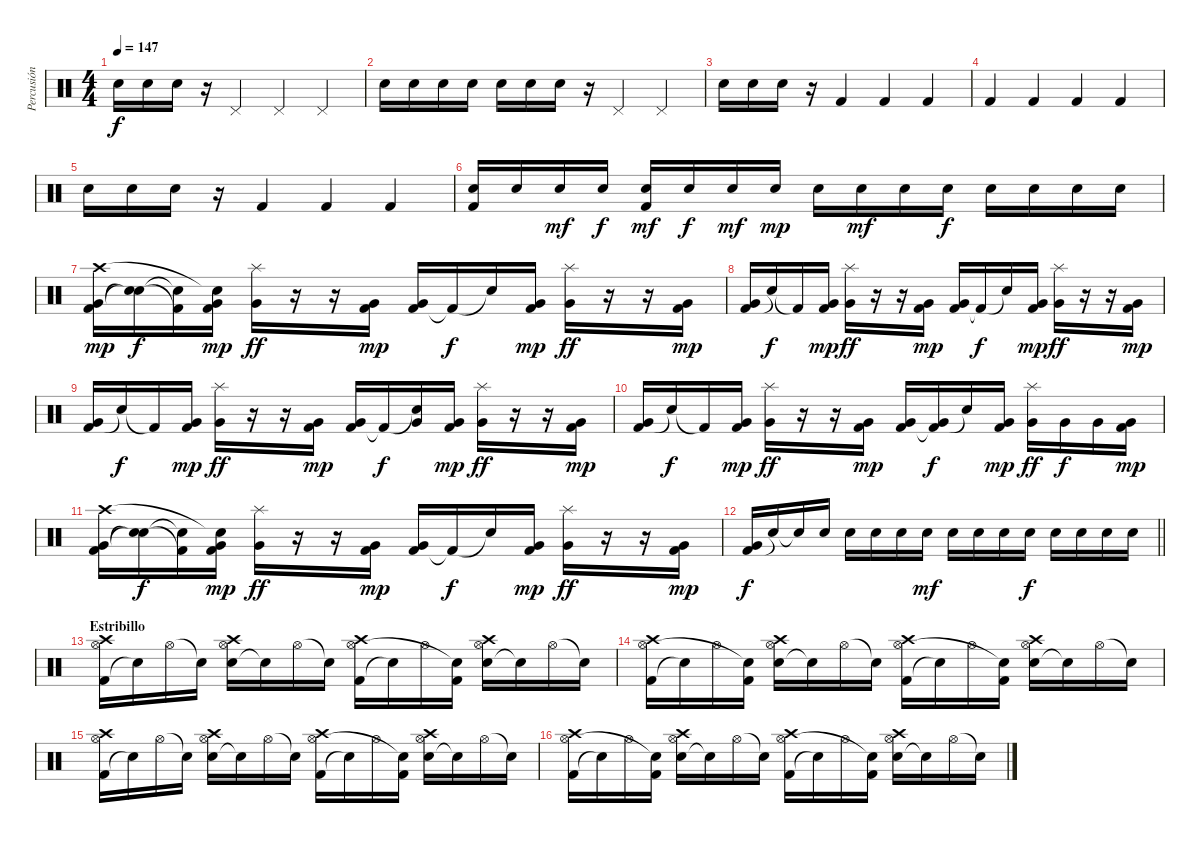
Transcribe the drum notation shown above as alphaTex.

\track ("Percusión" "Percusión") {instrument percussion}
\staff {score}
\articulation defaults
\ts (4 4)
\tempo 147
\clef neutral
\ks c "Electric Snare (hit)".16{dy f} "Electric Snare (hit)".16 "Electric Snare (hit)".16
r.16 "Pedal Hi-Hat (hit)".4 "Pedal Hi-Hat (hit)".4 "Pedal Hi-Hat (hit)".4 |
"Electric Snare (hit)".16 "Electric Snare (hit)".16 "Electric Snare (hit)".16 "Electric Snare (hit)".16 "Electric Snare (hit)".16 "Electric Snare (hit)".16 "Electric Snare (hit)".16 r.16 "Pedal Hi-Hat (hit)".4 "Pedal Hi-Hat (hit)".4 |
"Electric Snare (hit)".16 "Electric Snare (hit)".16 "Electric Snare (hit)".16 r.16 "Kick (hit) 2".4 "Kick (hit) 2".4 "Kick (hit) 2".4 |
"Kick (hit) 2".4 "Kick (hit) 2".4 "Kick (hit) 2".4 "Kick (hit) 2".4 |
"Electric Snare (hit)".16 "Electric Snare (hit)".16 "Electric Snare (hit)".16 r.16 "Kick (hit) 2".4 "Kick (hit) 2".4 "Kick (hit) 2".4 |
("Electric Snare (hit)" "Kick (hit) 2").16 "Electric Snare (hit)".16 "Electric Snare (hit)".16{dy mf} "Electric Snare (hit)".16{dy f} ("Electric Snare (hit)" "Kick (hit) 2").16{dy mf} "Electric Snare (hit)".16{dy f} "Electric Snare (hit)".16{dy mf} "Electric Snare (hit)".16{dy mp} "Electric Snare (hit)".16 "Electric Snare (hit)".16{dy mf} "Electric Snare (hit)".16 "Electric Snare (hit)".16{dy f} "Electric Snare (hit)".16 "Electric Snare (hit)".16 "Electric Snare (hit)".16 "Electric Snare (hit)".16 |
("Kick (hit) 2" "Very Low Tom (hit)" "Crash high (hit)").16{dy mp} ("Snare (hit)"{t} "Snare (hit)"{t}).16{dy f} ("Kick (hit) 2"{t} "Snare (hit)"{t}).16 ("Kick (hit) 2" "Very Low Tom (hit)" "Snare (hit)"{t}).16{dy mp} ("Very Low Tom (hit)" "Splash (hit)").16{dy ff} r.16 r.16 ("Kick (hit) 2" "Very Low Tom (hit)").16{dy mp} ("Kick (hit) 2" "Very Low Tom (hit)").16 "Kick (hit) 2"{t}.16{dy f} "Snare (hit)"{t}.16 ("Kick (hit) 2" "Very Low Tom (hit)").16{dy mp} ("Very Low Tom (hit)" "Splash (hit)").16{dy ff} r.16 r.16 ("Kick (hit) 2" "Very Low Tom (hit)").16{dy mp} |
("Kick (hit) 2" "Very Low Tom (hit)").16 "Snare (hit)"{t}.16{dy f} "Kick (hit) 2"{t}.16 ("Kick (hit) 2" "Very Low Tom (hit)").16{dy mp} ("Very Low Tom (hit)" "Splash (hit)").16{dy ff} r.16 r.16 ("Kick (hit) 2" "Very Low Tom (hit)").16{dy mp} ("Kick (hit) 2" "Very Low Tom (hit)").16 "Kick (hit) 2"{t}.16{dy f} "Snare (hit)"{t}.16 ("Kick (hit) 2" "Very Low Tom (hit)").16{dy mp} ("Very Low Tom (hit)" "Splash (hit)").16{dy ff} r.16 r.16 ("Kick (hit) 2" "Very Low Tom (hit)").16{dy mp} |
("Kick (hit) 2" "Very Low Tom (hit)").16 "Snare (hit)"{t}.16{dy f} "Kick (hit) 2"{t}.16 ("Kick (hit) 2" "Very Low Tom (hit)").16{dy mp} ("Very Low Tom (hit)" "Splash (hit)").16{dy ff} r.16 r.16 ("Kick (hit) 2" "Very Low Tom (hit)").16{dy mp} ("Kick (hit) 2" "Very Low Tom (hit)").16 "Kick (hit) 2"{t}.16{dy f} ("Snare (hit)"{t} "Very Low Tom (hit)").16 ("Kick (hit) 2" "Very Low Tom (hit)").16{dy mp} ("Very Low Tom (hit)" "Splash (hit)").16{dy ff} r.16 r.16 ("Kick (hit) 2" "Very Low Tom (hit)").16{dy mp} |
("Kick (hit) 2" "Very Low Tom (hit)").16 "Snare (hit)"{t}.16{dy f} "Kick (hit) 2"{t}.16 ("Kick (hit) 2" "Very Low Tom (hit)").16{dy mp} ("Very Low Tom (hit)" "Splash (hit)").16{dy ff} r.16 r.16 ("Kick (hit) 2" "Very Low Tom (hit)").16{dy mp} ("Kick (hit) 2" "Very Low Tom (hit)").16 ("Kick (hit) 2"{t} "Very Low Tom (hit)").16{dy f} "Snare (hit)"{t}.16 ("Kick (hit) 2" "Very Low Tom (hit)").16{dy mp} ("Very Low Tom (hit)" "Splash (hit)").16{dy ff} "Very Low Tom (hit)".16{dy f} "Very Low Tom (hit)".16 ("Kick (hit) 2" "Very Low Tom (hit)").16{dy mp} |
("Kick (hit) 2" "Very Low Tom (hit)" "Crash high (hit)").16 ("Snare (hit)"{t} "Snare (hit)"{t}).16{dy f} ("Kick (hit) 2"{t} "Snare (hit)"{t}).16 ("Kick (hit) 2" "Very Low Tom (hit)" "Snare (hit)"{t}).16{dy mp} ("Very Low Tom (hit)" "Splash (hit)").16{dy ff} r.16 r.16 ("Kick (hit) 2" "Very Low Tom (hit)").16{dy mp} ("Kick (hit) 2" "Very Low Tom (hit)").16 "Kick (hit) 2"{t}.16{dy f} "Snare (hit)"{t}.16 ("Kick (hit) 2" "Very Low Tom (hit)").16{dy mp} ("Very Low Tom (hit)" "Splash (hit)").16{dy ff} r.16 r.16 ("Kick (hit) 2" "Very Low Tom (hit)").16{dy mp} |
\barLineRight lightlight
("Kick (hit) 2" "Very Low Tom (hit)").16{dy f} "Electric Snare (hit)"{t}.16 "Electric Snare (hit)"{t}.16 "Electric Snare (hit)".16 "Electric Snare (hit)".16 "Electric Snare (hit)".16 "Electric Snare (hit)".16 "Electric Snare (hit)".16{dy mf} "Electric Snare (hit)".16 "Electric Snare (hit)".16 "Electric Snare (hit)".16 "Electric Snare (hit)".16{dy f} "Electric Snare (hit)".16 "Electric Snare (hit)".16 "Electric Snare (hit)".16 "Electric Snare (hit)".16 |
\section ("" "Estribillo")
("Kick (hit) 2" "Hi-Hat (open)" "Crash high (hit)").16 "Snare (hit)"{t}.16 "Hi-Hat (open)".16 "Snare (hit)"{t}.16 ("Electric Snare (hit)" "Hi-Hat (open)" "Crash high (hit)").16 "Snare (hit)"{t}.16 "Hi-Hat (open)".16 "Snare (hit)"{t}.16 ("Kick (hit) 2" "Hi-Hat (open)" "Crash high (hit)").16 "Snare (hit)"{t}.16 "Hi-Hat (open)".16 ("Kick (hit) 2" "Snare (hit)"{t}).16 ("Electric Snare (hit)" "Hi-Hat (open)" "Crash high (hit)").16 "Snare (hit)"{t}.16 "Hi-Hat (open)".16 "Snare (hit)"{t}.16 |
("Kick (hit) 2" "Hi-Hat (open)" "Crash high (hit)").16 "Snare (hit)"{t}.16 "Hi-Hat (open)".16 ("Kick (hit) 2" "Snare (hit)"{t}).16 ("Electric Snare (hit)" "Hi-Hat (open)" "Crash high (hit)").16 "Snare (hit)"{t}.16 "Hi-Hat (open)".16 "Snare (hit)"{t}.16 ("Kick (hit) 2" "Hi-Hat (open)" "Crash high (hit)").16 "Snare (hit)"{t}.16 "Hi-Hat (open)".16 ("Kick (hit) 2" "Snare (hit)"{t}).16 ("Electric Snare (hit)" "Hi-Hat (open)" "Crash high (hit)").16 "Snare (hit)"{t}.16 "Hi-Hat (open)".16 "Snare (hit)"{t}.16 |
("Kick (hit) 2" "Hi-Hat (open)" "Crash high (hit)").16 "Snare (hit)"{t}.16 "Hi-Hat (open)".16 "Snare (hit)"{t}.16 ("Electric Snare (hit)" "Hi-Hat (open)" "Crash high (hit)").16 "Snare (hit)"{t}.16 "Hi-Hat (open)".16 "Snare (hit)"{t}.16 ("Kick (hit) 2" "Hi-Hat (open)" "Crash high (hit)").16 "Snare (hit)"{t}.16 "Hi-Hat (open)".16 ("Kick (hit) 2" "Snare (hit)"{t}).16 ("Electric Snare (hit)" "Hi-Hat (open)" "Crash high (hit)").16 "Snare (hit)"{t}.16 "Hi-Hat (open)".16 "Snare (hit)"{t}.16 |
("Kick (hit) 2" "Hi-Hat (open)" "Crash high (hit)").16 "Snare (hit)"{t}.16 "Hi-Hat (open)".16 ("Kick (hit) 2" "Snare (hit)"{t}).16 ("Electric Snare (hit)" "Hi-Hat (open)" "Crash high (hit)").16 "Snare (hit)"{t}.16 "Hi-Hat (open)".16 "Snare (hit)"{t}.16 ("Kick (hit) 2" "Hi-Hat (open)" "Crash high (hit)").16 "Snare (hit)"{t}.16 "Hi-Hat (open)".16 ("Kick (hit) 2" "Snare (hit)"{t}).16 ("Electric Snare (hit)" "Hi-Hat (open)" "Crash high (hit)").16 "Snare (hit)"{t}.16 "Hi-Hat (open)".16 "Snare (hit)"{t}.16
